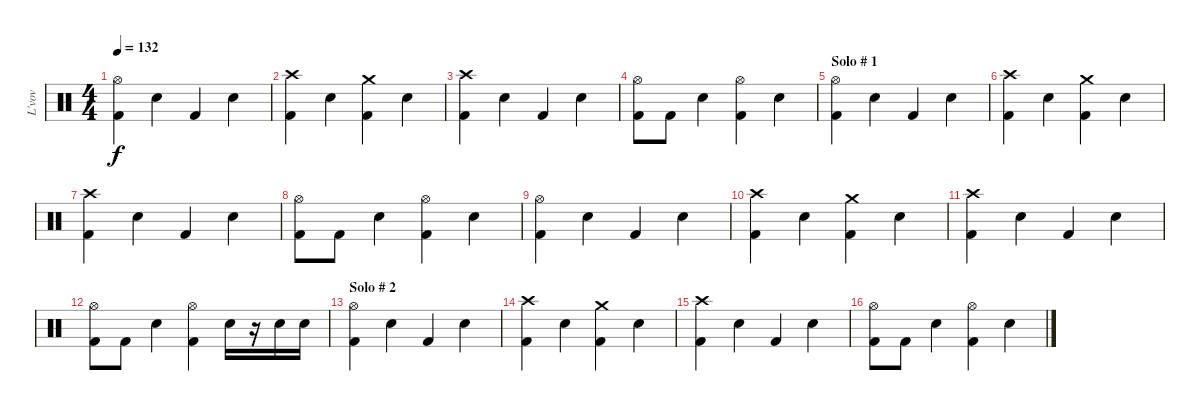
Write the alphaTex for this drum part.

\track ("L'vov" "L'vov") {instrument percussion}
\staff {score}
\articulation defaults
\ts (4 4)
\tempo 132
\clef neutral
\ks c
("Kick (hit) 2" "Hi-Hat (open)").4{dy f} "Snare (hit) 2".4 "Kick (hit) 2".4 "Snare (hit) 2".4 |
("Kick (hit) 2" "Crash high (hit)").4 "Snare (hit) 2".4 ("Kick (hit) 2" "Crash medium (hit)").4 "Snare (hit) 2".4 |
("Kick (hit) 2" "Crash high (hit)").4 "Snare (hit) 2".4 "Kick (hit) 2".4 "Snare (hit) 2".4 |
("Kick (hit) 2" "Hi-Hat (open)").8 "Kick (hit) 2".8 "Snare (hit) 2".4 ("Kick (hit) 2" "Hi-Hat (open)").4 "Snare (hit) 2".4 |
\section ("" "Solo # 1")
("Kick (hit) 2" "Hi-Hat (open)").4 "Snare (hit) 2".4 "Kick (hit) 2".4 "Snare (hit) 2".4 |
("Kick (hit) 2" "Crash high (hit)").4 "Snare (hit) 2".4 ("Kick (hit) 2" "Crash medium (hit)").4 "Snare (hit) 2".4 |
("Kick (hit) 2" "Crash high (hit)").4 "Snare (hit) 2".4 "Kick (hit) 2".4 "Snare (hit) 2".4 |
("Kick (hit) 2" "Hi-Hat (open)").8 "Kick (hit) 2".8 "Snare (hit) 2".4 ("Kick (hit) 2" "Hi-Hat (open)").4 "Snare (hit) 2".4 |
("Kick (hit) 2" "Hi-Hat (open)").4 "Snare (hit) 2".4 "Kick (hit) 2".4 "Snare (hit) 2".4 |
("Kick (hit) 2" "Crash high (hit)").4 "Snare (hit) 2".4 ("Kick (hit) 2" "Crash medium (hit)").4 "Snare (hit) 2".4 |
("Kick (hit) 2" "Crash high (hit)").4 "Snare (hit) 2".4 "Kick (hit) 2".4 "Snare (hit) 2".4 |
("Kick (hit) 2" "Hi-Hat (open)").8 "Kick (hit) 2".8 "Snare (hit) 2".4 ("Kick (hit) 2" "Hi-Hat (open)").4 "Snare (hit) 2".16 r.16 "Snare (hit) 2".16 "Snare (hit) 2".16 |
\section ("" "Solo # 2")
("Kick (hit) 2" "Hi-Hat (open)").4 "Snare (hit) 2".4 "Kick (hit) 2".4 "Snare (hit) 2".4 |
("Kick (hit) 2" "Crash high (hit)").4 "Snare (hit) 2".4 ("Kick (hit) 2" "Crash medium (hit)").4 "Snare (hit) 2".4 |
("Kick (hit) 2" "Crash high (hit)").4 "Snare (hit) 2".4 "Kick (hit) 2".4 "Snare (hit) 2".4 |
("Kick (hit) 2" "Hi-Hat (open)").8 "Kick (hit) 2".8 "Snare (hit) 2".4 ("Kick (hit) 2" "Hi-Hat (open)").4 "Snare (hit) 2".4
